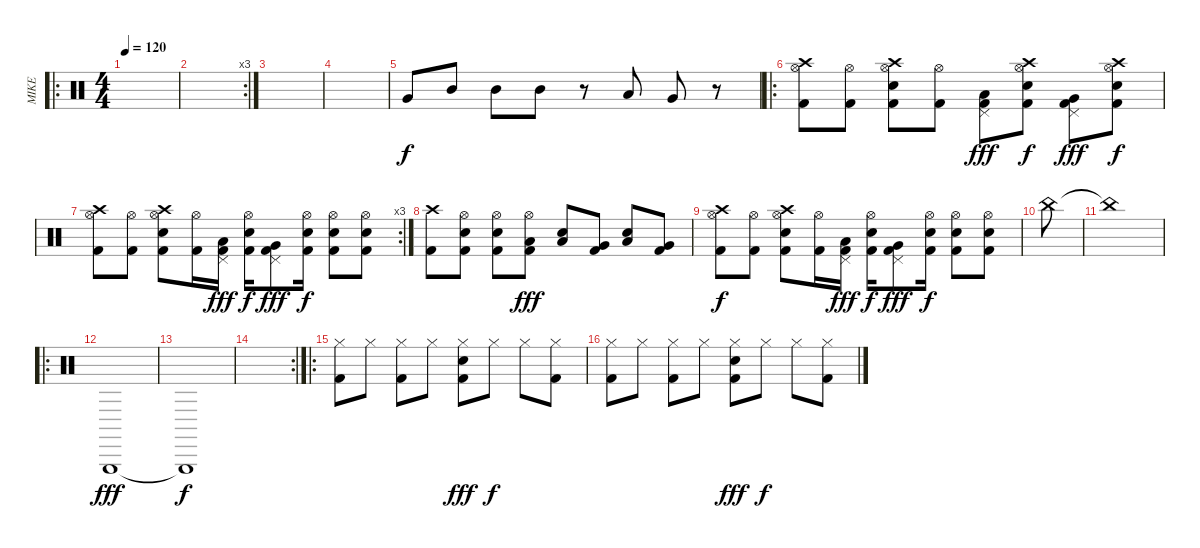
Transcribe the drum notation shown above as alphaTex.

\track ("MIKE" "MIKE") {instrument percussion}
\staff {score}
\articulation defaults
\ro
\ts (4 4)
\tempo 120
\clef neutral
\ks c
|
\rc 3
|
|
|
"Very Low Tom (hit)".8 "Mid Tom (hit)".8 "Mid Tom (hit)".8 "Mid Tom (hit)".8 r.8 "Low Tom (hit)".8 "Very Low Tom (hit)".8 r.8 |
\ro
("Crash high (hit)" "Hi-Hat (open)" "Kick (hit) 2").8 ("Hi-Hat (open)" "Kick (hit) 2").8 ("Crash high (hit)" "Hi-Hat (open)" "Electric Snare (hit)" "Kick (hit) 2").8 ("Hi-Hat (open)" "Kick (hit) 2").8 ("Low Tom (hit)" "Pedal Hi-Hat (hit)" "Kick (hit) 2").8{dy fff} ("Crash high (hit)" "Hi-Hat (open)" "Electric Snare (hit)" "Kick (hit) 2").8{dy f} ("Very Low Tom (hit)" "Pedal Hi-Hat (hit)" "Kick (hit) 2").8{dy fff} ("Crash high (hit)" "Hi-Hat (open)" "Electric Snare (hit)" "Kick (hit) 2").8{dy f} |
\rc 3
("Crash high (hit)" "Hi-Hat (open)" "Kick (hit) 2").8 ("Hi-Hat (open)" "Kick (hit) 2").8 ("Crash high (hit)" "Hi-Hat (open)" "Electric Snare (hit)" "Kick (hit) 2").8 ("Hi-Hat (open)" "Kick (hit) 2").16 ("Low Tom (hit)" "Pedal Hi-Hat (hit)" "Kick (hit) 2").16{dy fff} ("Hi-Hat (open)" "Electric Snare (hit)" "Kick (hit) 2").16{dy f} ("Very Low Tom (hit)" "Pedal Hi-Hat (hit)" "Kick (hit) 2").8{dy fff} ("Hi-Hat (open)" "Electric Snare (hit)" "Kick (hit) 2").16{dy f} ("Hi-Hat (open)" "Electric Snare (hit)" "Kick (hit) 2").8 ("Hi-Hat (open)" "Electric Snare (hit)" "Kick (hit) 2").8 |
("Crash high (hit)" "Kick (hit) 2").8 ("Hi-Hat (open)" "Electric Snare (hit)" "Kick (hit) 2").8 ("Hi-Hat (open)" "Electric Snare (hit)" "Kick (hit) 2").8 ("Hi-Hat (open)" "Low Tom (hit)" "Kick (hit) 2").8{dy fff} ("Low Tom (hit)" "Electric Snare (hit)").8 ("Very Low Tom (hit)" "Kick (hit) 2").8 ("Low Tom (hit)" "Electric Snare (hit)").8 ("Very Low Tom (hit)" "Kick (hit) 2").8 |
("Crash high (hit)" "Hi-Hat (open)" "Kick (hit) 2").8{dy f} ("Hi-Hat (open)" "Kick (hit) 2").8 ("Crash high (hit)" "Hi-Hat (open)" "Electric Snare (hit)" "Kick (hit) 2").8 ("Hi-Hat (open)" "Kick (hit) 2").16 ("Low Tom (hit)" "Pedal Hi-Hat (hit)" "Kick (hit) 2").16{dy fff} ("Hi-Hat (open)" "Electric Snare (hit)" "Kick (hit) 2").16{dy f} ("Very Low Tom (hit)" "Pedal Hi-Hat (hit)" "Kick (hit) 2").8{dy fff} ("Hi-Hat (open)" "Electric Snare (hit)" "Kick (hit) 2").16{dy f} ("Hi-Hat (open)" "Electric Snare (hit)" "Kick (hit) 2").8 ("Hi-Hat (open)" "Electric Snare (hit)" "Kick (hit) 2").8 |
"China (hit)".8 |
"China (hit)"{t}.1 |
\ro "Triangle (hit)".1{dy fff}
|
"Triangle (hit)"{t}.1{dy f} |
\rc 2
|
\ro
("Hi-Hat (closed)" "Kick (hit) 2").8 "Hi-Hat (closed)".8 ("Hi-Hat (closed)" "Kick (hit) 2").8 "Hi-Hat (closed)".8 ("Hi-Hat (closed)" "Electric Snare (hit)" "Kick (hit) 2").8{dy fff} "Hi-Hat (closed)".8{dy f} "Hi-Hat (closed)".8 ("Hi-Hat (closed)" "Kick (hit) 2").8 |
("Hi-Hat (closed)" "Kick (hit) 2").8 "Hi-Hat (closed)".8 ("Hi-Hat (closed)" "Kick (hit) 2").8 "Hi-Hat (closed)".8 ("Hi-Hat (closed)" "Electric Snare (hit)" "Kick (hit) 2").8{dy fff} "Hi-Hat (closed)".8{dy f} "Hi-Hat (closed)".8 ("Hi-Hat (closed)" "Kick (hit) 2").8
